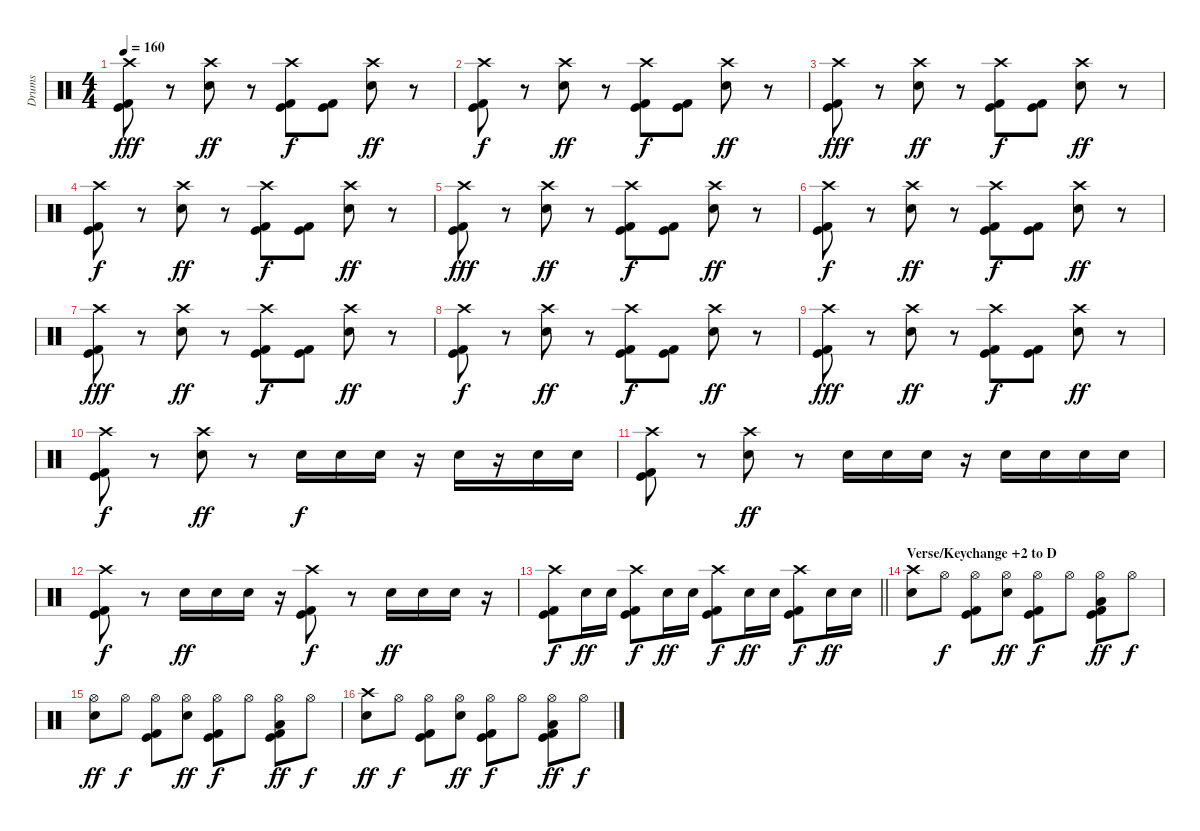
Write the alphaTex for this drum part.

\track ("Drums" "Drums") {instrument percussion}
\staff {score}
\articulation defaults
\ts (4 4)
\tempo 160
\clef neutral
\ks c
("Crash high (hit)" "Kick (hit)" "Kick (hit) 2").8{dy fff} r.8 ("Crash high (hit)" "Snare (hit) 2").8{dy ff} r.8 ("Crash high (hit)" "Kick (hit)" "Kick (hit) 2").8{dy f} ("Kick (hit)" "Kick (hit) 2").8 ("Crash high (hit)" "Snare (hit) 2").8{dy ff} r.8 |
("Crash high (hit)" "Kick (hit)" "Kick (hit) 2").8{dy f} r.8 ("Crash high (hit)" "Snare (hit) 2").8{dy ff} r.8 ("Crash high (hit)" "Kick (hit)" "Kick (hit) 2").8{dy f} ("Kick (hit)" "Kick (hit) 2").8 ("Crash high (hit)" "Snare (hit) 2").8{dy ff} r.8 |
("Crash high (hit)" "Kick (hit)" "Kick (hit) 2").8{dy fff} r.8 ("Crash high (hit)" "Snare (hit) 2").8{dy ff} r.8 ("Crash high (hit)" "Kick (hit)" "Kick (hit) 2").8{dy f} ("Kick (hit)" "Kick (hit) 2").8 ("Crash high (hit)" "Snare (hit) 2").8{dy ff} r.8 |
("Crash high (hit)" "Kick (hit)" "Kick (hit) 2").8{dy f} r.8 ("Crash high (hit)" "Snare (hit) 2").8{dy ff} r.8 ("Crash high (hit)" "Kick (hit)" "Kick (hit) 2").8{dy f} ("Kick (hit)" "Kick (hit) 2").8 ("Crash high (hit)" "Snare (hit) 2").8{dy ff} r.8 |
("Crash high (hit)" "Kick (hit)" "Kick (hit) 2").8{dy fff} r.8 ("Crash high (hit)" "Snare (hit) 2").8{dy ff} r.8 ("Crash high (hit)" "Kick (hit)" "Kick (hit) 2").8{dy f} ("Kick (hit)" "Kick (hit) 2").8 ("Crash high (hit)" "Snare (hit) 2").8{dy ff} r.8 |
("Crash high (hit)" "Kick (hit)" "Kick (hit) 2").8{dy f} r.8 ("Crash high (hit)" "Snare (hit) 2").8{dy ff} r.8 ("Crash high (hit)" "Kick (hit)" "Kick (hit) 2").8{dy f} ("Kick (hit)" "Kick (hit) 2").8 ("Crash high (hit)" "Snare (hit) 2").8{dy ff} r.8 |
("Crash high (hit)" "Kick (hit)" "Kick (hit) 2").8{dy fff} r.8 ("Crash high (hit)" "Snare (hit) 2").8{dy ff} r.8 ("Crash high (hit)" "Kick (hit)" "Kick (hit) 2").8{dy f} ("Kick (hit)" "Kick (hit) 2").8 ("Crash high (hit)" "Snare (hit) 2").8{dy ff} r.8 |
("Crash high (hit)" "Kick (hit)" "Kick (hit) 2").8{dy f} r.8 ("Crash high (hit)" "Snare (hit) 2").8{dy ff} r.8 ("Crash high (hit)" "Kick (hit)" "Kick (hit) 2").8{dy f} ("Kick (hit)" "Kick (hit) 2").8 ("Crash high (hit)" "Snare (hit) 2").8{dy ff} r.8 |
("Crash high (hit)" "Kick (hit)" "Kick (hit) 2").8{dy fff} r.8 ("Crash high (hit)" "Snare (hit) 2").8{dy ff} r.8 ("Crash high (hit)" "Kick (hit)" "Kick (hit) 2").8{dy f} ("Kick (hit)" "Kick (hit) 2").8 ("Crash high (hit)" "Snare (hit) 2").8{dy ff} r.8 |
("Crash high (hit)" "Kick (hit)" "Kick (hit) 2").8{dy f} r.8 ("Crash high (hit)" "Snare (hit) 2").8{dy ff} r.8 "Snare (hit) 2".16{dy f} "Snare (hit) 2".16 "Snare (hit) 2".16 r.16 "Snare (hit) 2".16 r.16 "Snare (hit) 2".16 "Snare (hit) 2".16 |
("Crash high (hit)" "Kick (hit)" "Kick (hit) 2").8 r.8 ("Crash high (hit)" "Snare (hit) 2").8{dy ff} r.8 "Snare (hit) 2".16 "Snare (hit) 2".16 "Snare (hit) 2".16 r.16 "Snare (hit) 2".16 "Snare (hit) 2".16 "Snare (hit) 2".16 "Snare (hit) 2".16 |
("Crash high (hit)" "Kick (hit)" "Kick (hit) 2").8{dy f} r.8 "Snare (hit) 2".16{dy ff} "Snare (hit) 2".16 "Snare (hit) 2".16 r.16 ("Crash high (hit)" "Kick (hit)" "Kick (hit) 2").8{dy f} r.8 "Snare (hit) 2".16{dy ff} "Snare (hit) 2".16 "Snare (hit) 2".16 r.16 |
\barLineRight lightlight
("Crash high (hit)" "Kick (hit)" "Kick (hit) 2").8{dy f} "Snare (hit) 2".16{dy ff} "Snare (hit) 2".16 ("Crash high (hit)" "Kick (hit)" "Kick (hit) 2").8{dy f} "Snare (hit) 2".16{dy ff} "Snare (hit) 2".16 ("Crash high (hit)" "Kick (hit)" "Kick (hit) 2").8{dy f} "Snare (hit) 2".16{dy ff} "Snare (hit) 2".16 ("Crash high (hit)" "Kick (hit)" "Kick (hit) 2").8{dy f} "Snare (hit) 2".16{dy ff} "Snare (hit) 2".16 |
\section ("" "Verse/Keychange +2 to D")
("Crash high (hit)" "Snare (hit) 2").8 "Hi-Hat (open)".8{dy f} ("Hi-Hat (open)" "Kick (hit)" "Kick (hit) 2").8 ("Hi-Hat (open)" "Snare (hit) 2").8{dy ff} ("Hi-Hat (open)" "Kick (hit)" "Kick (hit) 2").8{dy f} "Hi-Hat (open)".8 ("Hi-Hat (open)" "Low Tom (hit)" "Kick (hit)" "Kick (hit) 2").8{dy ff} "Hi-Hat (open)".8{dy f} |
("Hi-Hat (open)" "Snare (hit) 2").8{dy ff} "Hi-Hat (open)".8{dy f} ("Hi-Hat (open)" "Kick (hit)" "Kick (hit) 2").8 ("Hi-Hat (open)" "Snare (hit) 2").8{dy ff} ("Hi-Hat (open)" "Kick (hit)" "Kick (hit) 2").8{dy f} "Hi-Hat (open)".8 ("Hi-Hat (open)" "Low Tom (hit)" "Kick (hit)" "Kick (hit) 2").8{dy ff} "Hi-Hat (open)".8{dy f} |
("Crash high (hit)" "Snare (hit) 2").8{dy ff} "Hi-Hat (open)".8{dy f} ("Hi-Hat (open)" "Kick (hit)" "Kick (hit) 2").8 ("Hi-Hat (open)" "Snare (hit) 2").8{dy ff} ("Hi-Hat (open)" "Kick (hit)" "Kick (hit) 2").8{dy f} "Hi-Hat (open)".8 ("Hi-Hat (open)" "Low Tom (hit)" "Kick (hit)" "Kick (hit) 2").8{dy ff} "Hi-Hat (open)".8{dy f}
